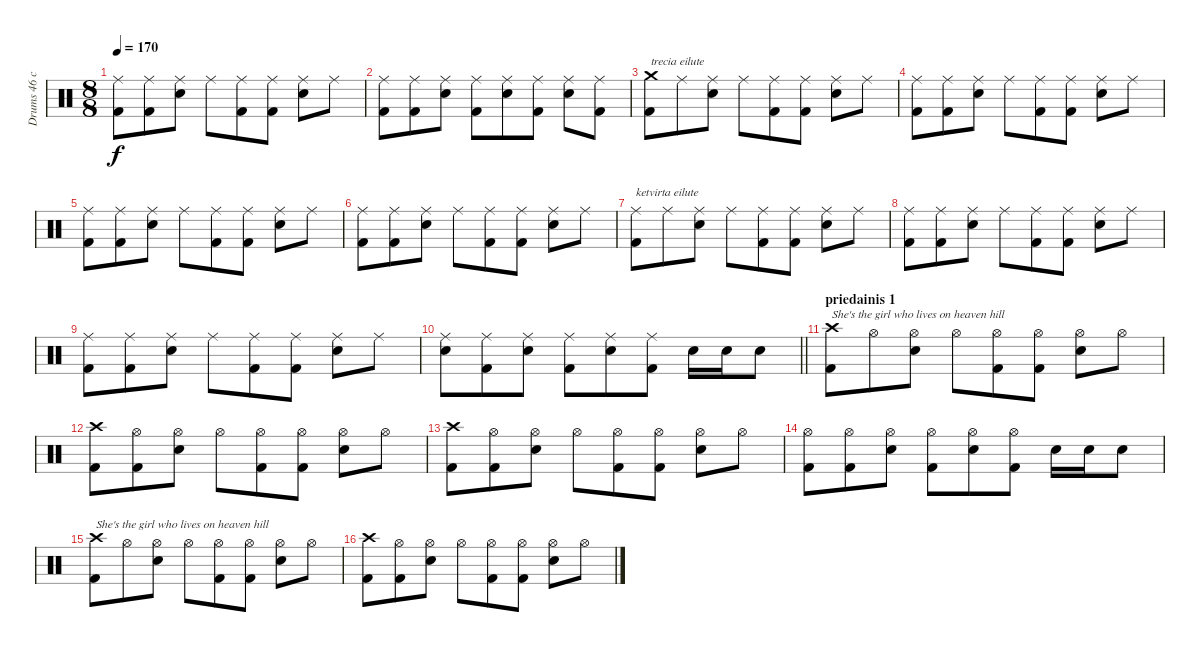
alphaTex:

\track ("Drums 46 chorus" "Drums 46 c") {mute instrument percussion}
\staff {score}
\articulation defaults
\ts (8 8)
\tempo 170
\clef neutral
\ks c
("Ride (middle)" "Kick (hit) 2").8{dy f} ("Ride (middle)" "Kick (hit) 2").8 ("Ride (middle)" "Snare (hit) 2").8 "Ride (middle)".8 ("Ride (middle)" "Kick (hit) 2").8 ("Ride (middle)" "Kick (hit) 2").8 ("Ride (middle)" "Snare (hit) 2").8 "Ride (middle)".8 |
("Ride (middle)" "Kick (hit) 2").8 ("Ride (middle)" "Kick (hit) 2").8 ("Ride (middle)" "Snare (hit) 2").8 ("Ride (middle)" "Kick (hit) 2").8 ("Ride (middle)" "Snare (hit) 2").8 ("Ride (middle)" "Kick (hit) 2").8 ("Ride (middle)" "Snare (hit) 2").8 ("Ride (middle)" "Kick (hit) 2").8 |
("Crash medium (hit)" "Kick (hit) 2").8{txt "trecia eilute"} "Ride (middle)".8 ("Ride (middle)" "Snare (hit) 2").8 "Ride (middle)".8 ("Ride (middle)" "Kick (hit) 2").8 ("Ride (middle)" "Kick (hit) 2").8 ("Ride (middle)" "Snare (hit) 2").8 "Ride (middle)".8 |
("Ride (middle)" "Kick (hit) 2").8 ("Ride (middle)" "Kick (hit) 2").8 ("Ride (middle)" "Snare (hit) 2").8 "Ride (middle)".8 ("Ride (middle)" "Kick (hit) 2").8 ("Ride (middle)" "Kick (hit) 2").8 ("Ride (middle)" "Snare (hit) 2").8 "Ride (middle)".8 |
("Ride (middle)" "Kick (hit) 2").8 ("Ride (middle)" "Kick (hit) 2").8 ("Ride (middle)" "Snare (hit) 2").8 "Ride (middle)".8 ("Ride (middle)" "Kick (hit) 2").8 ("Ride (middle)" "Kick (hit) 2").8 ("Ride (middle)" "Snare (hit) 2").8 "Ride (middle)".8 |
("Ride (middle)" "Kick (hit) 2").8 ("Ride (middle)" "Kick (hit) 2").8 ("Ride (middle)" "Snare (hit) 2").8 "Ride (middle)".8 ("Ride (middle)" "Kick (hit) 2").8 ("Ride (middle)" "Kick (hit) 2").8 ("Ride (middle)" "Snare (hit) 2").8 "Ride (middle)".8 |
("Ride (middle)" "Kick (hit) 2").8{txt "ketvirta eilute"} "Ride (middle)".8 ("Ride (middle)" "Snare (hit) 2").8 "Ride (middle)".8 ("Ride (middle)" "Kick (hit) 2").8 ("Ride (middle)" "Kick (hit) 2").8 ("Ride (middle)" "Snare (hit) 2").8 "Ride (middle)".8 |
("Ride (middle)" "Kick (hit) 2").8 ("Ride (middle)" "Kick (hit) 2").8 ("Ride (middle)" "Snare (hit) 2").8 "Ride (middle)".8 ("Ride (middle)" "Kick (hit) 2").8 ("Ride (middle)" "Kick (hit) 2").8 ("Ride (middle)" "Snare (hit) 2").8 "Ride (middle)".8 |
("Ride (middle)" "Kick (hit) 2").8 ("Ride (middle)" "Kick (hit) 2").8 ("Ride (middle)" "Snare (hit) 2").8 "Ride (middle)".8 ("Ride (middle)" "Kick (hit) 2").8 ("Ride (middle)" "Kick (hit) 2").8 ("Ride (middle)" "Snare (hit) 2").8 "Ride (middle)".8 |
\barLineRight lightlight
("Ride (middle)" "Snare (hit) 2").8 ("Ride (middle)" "Kick (hit) 2").8 ("Ride (middle)" "Snare (hit) 2").8 ("Ride (middle)" "Kick (hit) 2").8 ("Ride (middle)" "Snare (hit) 2").8 ("Ride (middle)" "Kick (hit) 2").8 "Snare (hit) 2".16 "Snare (hit) 2".16 "Snare (hit) 2".8 |
\section ("" "priedainis 1")
("Crash high (hit)" "Kick (hit) 2").8{txt "She's the girl who lives on heaven hill"} "Hi-Hat (open)".8 ("Hi-Hat (open)" "Snare (hit) 2").8 "Hi-Hat (open)".8 ("Hi-Hat (open)" "Kick (hit) 2").8 ("Hi-Hat (open)" "Kick (hit) 2").8 ("Hi-Hat (open)" "Snare (hit) 2").8 "Hi-Hat (open)".8 |
("Crash high (hit)" "Kick (hit) 2").8 ("Hi-Hat (open)" "Kick (hit) 2").8 ("Hi-Hat (open)" "Snare (hit) 2").8 "Hi-Hat (open)".8 ("Hi-Hat (open)" "Kick (hit) 2").8 ("Hi-Hat (open)" "Kick (hit) 2").8 ("Hi-Hat (open)" "Snare (hit) 2").8 "Hi-Hat (open)".8 |
("Crash high (hit)" "Kick (hit) 2").8 ("Hi-Hat (open)" "Kick (hit) 2").8 ("Hi-Hat (open)" "Snare (hit) 2").8 "Hi-Hat (open)".8 ("Hi-Hat (open)" "Kick (hit) 2").8 ("Hi-Hat (open)" "Kick (hit) 2").8 ("Hi-Hat (open)" "Snare (hit) 2").8 "Hi-Hat (open)".8 |
("Hi-Hat (open)" "Kick (hit) 2").8 ("Hi-Hat (open)" "Kick (hit) 2").8 ("Hi-Hat (open)" "Snare (hit) 2").8 ("Hi-Hat (open)" "Kick (hit) 2").8 ("Hi-Hat (open)" "Snare (hit) 2").8 ("Hi-Hat (open)" "Kick (hit) 2").8 "Snare (hit) 2".16 "Snare (hit) 2".16 "Snare (hit) 2".8 |
("Crash high (hit)" "Kick (hit) 2").8{txt "She's the girl who lives on heaven hill"} "Hi-Hat (open)".8 ("Hi-Hat (open)" "Snare (hit) 2").8 "Hi-Hat (open)".8 ("Hi-Hat (open)" "Kick (hit) 2").8 ("Hi-Hat (open)" "Kick (hit) 2").8 ("Hi-Hat (open)" "Snare (hit) 2").8 "Hi-Hat (open)".8 |
("Crash high (hit)" "Kick (hit) 2").8 ("Hi-Hat (open)" "Kick (hit) 2").8 ("Hi-Hat (open)" "Snare (hit) 2").8 "Hi-Hat (open)".8 ("Hi-Hat (open)" "Kick (hit) 2").8 ("Hi-Hat (open)" "Kick (hit) 2").8 ("Hi-Hat (open)" "Snare (hit) 2").8 "Hi-Hat (open)".8
